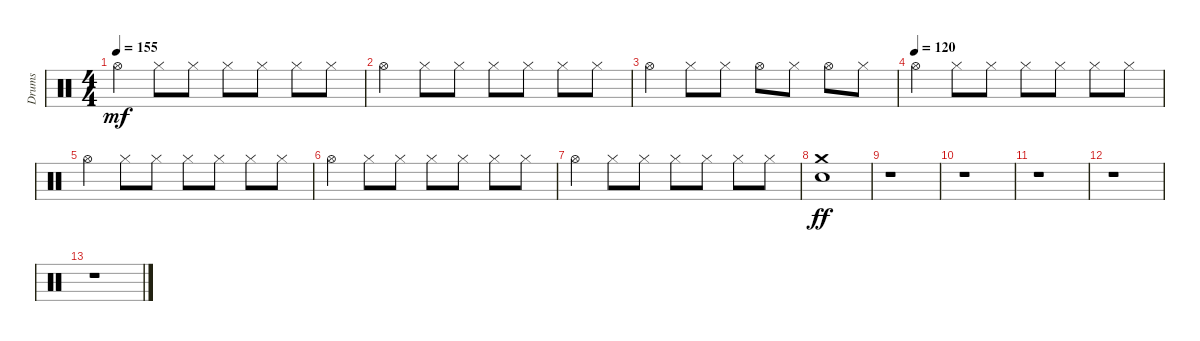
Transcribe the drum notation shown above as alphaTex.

\track ("Drums" "Drums") {instrument percussion}
\staff {score}
\articulation defaults
\ts (4 4)
\tempo 155
\clef neutral
\ks c "Hi-Hat (open)".4{dy mf} "Hi-Hat (closed)".8 "Hi-Hat (closed)".8 "Hi-Hat (closed)".8 "Hi-Hat (closed)".8 "Hi-Hat (closed)".8 "Hi-Hat (closed)".8
|
"Hi-Hat (open)".4 "Hi-Hat (closed)".8 "Hi-Hat (closed)".8 "Hi-Hat (closed)".8 "Hi-Hat (closed)".8 "Hi-Hat (closed)".8 "Hi-Hat (closed)".8 |
"Hi-Hat (open)".4 "Hi-Hat (closed)".8 "Hi-Hat (closed)".8 "Hi-Hat (open)".8 "Hi-Hat (closed)".8 "Hi-Hat (open)".8 "Hi-Hat (closed)".8 |
\tempo (120)
"Hi-Hat (open)".4 "Hi-Hat (closed)".8 "Hi-Hat (closed)".8 "Hi-Hat (closed)".8 "Hi-Hat (closed)".8 "Hi-Hat (closed)".8 "Hi-Hat (closed)".8 |
"Hi-Hat (open)".4 "Hi-Hat (closed)".8 "Hi-Hat (closed)".8 "Hi-Hat (closed)".8 "Hi-Hat (closed)".8 "Hi-Hat (closed)".8 "Hi-Hat (closed)".8 |
"Hi-Hat (open)".4 "Hi-Hat (closed)".8 "Hi-Hat (closed)".8 "Hi-Hat (closed)".8 "Hi-Hat (closed)".8 "Hi-Hat (closed)".8 "Hi-Hat (closed)".8 |
"Hi-Hat (open)".4 "Hi-Hat (closed)".8 "Hi-Hat (closed)".8 "Hi-Hat (closed)".8 "Hi-Hat (closed)".8 "Hi-Hat (closed)".8 "Hi-Hat (closed)".8 |
("Electric Snare (hit)" "Crash medium (hit)").1{dy ff} |
r.1 |
r.1 |
r.1 |
r.1 |
r.1
